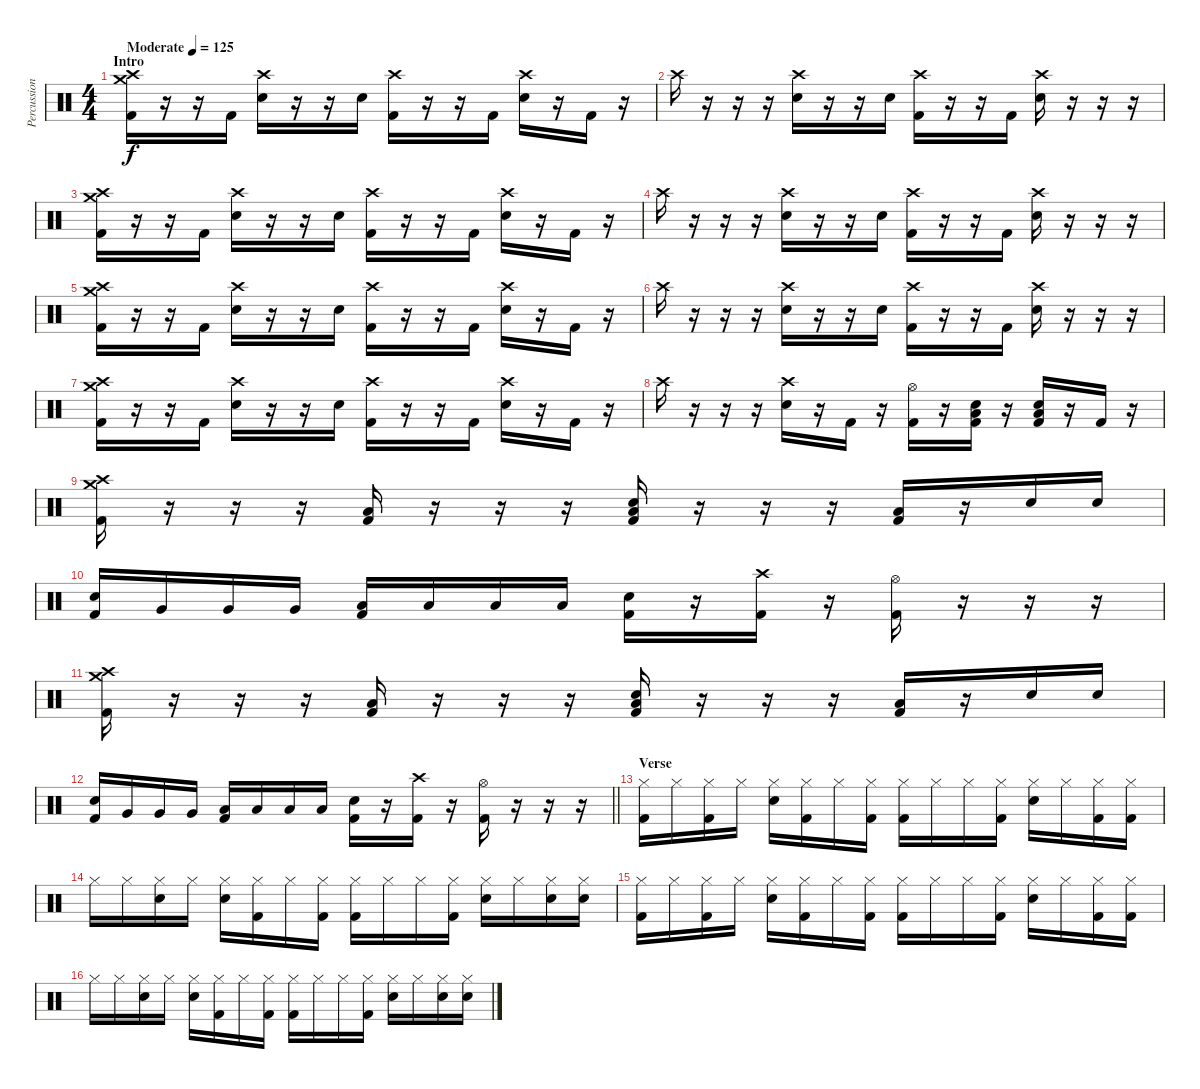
\track ("Percussion" "Percussion") {instrument percussion}
\staff {score}
\articulation defaults
\ts (4 4)
\section ("" "Intro")
\tempo (125 "Moderate")
\clef neutral
\ks c
("Crash medium (hit)" "Crash high (hit)" "Kick (hit) 2").16{dy f} r.16 r.16 "Kick (hit) 2".16 ("Crash high (hit)" "Electric Snare (hit)").16 r.16 r.16 "Electric Snare (hit)".16 ("Crash high (hit)" "Kick (hit) 2").16 r.16 r.16 "Kick (hit) 2".16 ("Crash high (hit)" "Electric Snare (hit)").16 r.16 "Kick (hit) 2".16 r.16 |
"Crash high (hit)".16 r.16 r.16 r.16 ("Crash high (hit)" "Electric Snare (hit)").16 r.16 r.16 "Electric Snare (hit)".16 ("Crash high (hit)" "Kick (hit) 2").16 r.16 r.16 "Kick (hit) 2".16 ("Crash high (hit)" "Electric Snare (hit)").16 r.16 r.16 r.16 |
("Crash medium (hit)" "Crash high (hit)" "Kick (hit) 2").16 r.16 r.16 "Kick (hit) 2".16 ("Crash high (hit)" "Electric Snare (hit)").16 r.16 r.16 "Electric Snare (hit)".16 ("Crash high (hit)" "Kick (hit) 2").16 r.16 r.16 "Kick (hit) 2".16 ("Crash high (hit)" "Electric Snare (hit)").16 r.16 "Kick (hit) 2".16 r.16 |
"Crash high (hit)".16 r.16 r.16 r.16 ("Crash high (hit)" "Electric Snare (hit)").16 r.16 r.16 "Electric Snare (hit)".16 ("Crash high (hit)" "Kick (hit) 2").16 r.16 r.16 "Kick (hit) 2".16 ("Crash high (hit)" "Electric Snare (hit)").16 r.16 r.16 r.16 |
("Crash medium (hit)" "Crash high (hit)" "Kick (hit) 2").16 r.16 r.16 "Kick (hit) 2".16 ("Crash high (hit)" "Electric Snare (hit)").16 r.16 r.16 "Electric Snare (hit)".16 ("Crash high (hit)" "Kick (hit) 2").16 r.16 r.16 "Kick (hit) 2".16 ("Crash high (hit)" "Electric Snare (hit)").16 r.16 "Kick (hit) 2".16 r.16 |
"Crash high (hit)".16 r.16 r.16 r.16 ("Crash high (hit)" "Electric Snare (hit)").16 r.16 r.16 "Electric Snare (hit)".16 ("Crash high (hit)" "Kick (hit) 2").16 r.16 r.16 "Kick (hit) 2".16 ("Crash high (hit)" "Electric Snare (hit)").16 r.16 r.16 r.16 |
("Crash medium (hit)" "Crash high (hit)" "Kick (hit) 2").16 r.16 r.16 "Kick (hit) 2".16 ("Crash high (hit)" "Electric Snare (hit)").16 r.16 r.16 "Electric Snare (hit)".16 ("Crash high (hit)" "Kick (hit) 2").16 r.16 r.16 "Kick (hit) 2".16 ("Crash high (hit)" "Electric Snare (hit)").16 r.16 "Kick (hit) 2".16 r.16 |
"Crash high (hit)".16 r.16 r.16 r.16 ("Crash high (hit)" "Electric Snare (hit)").16 r.16 "Kick (hit) 2".16 r.16 ("Hi-Hat (open)" "Kick (hit) 2").16 r.16 ("Electric Snare (hit)" "Low Floor Tom (hit)" "Kick (hit) 2").16 r.16 ("Electric Snare (hit)" "Low Floor Tom (hit)" "Kick (hit) 2").16 r.16 "Kick (hit) 2".16 r.16 |
("Crash medium (hit)" "Crash high (hit)" "Kick (hit) 2").16 r.16 r.16 r.16 ("Low Floor Tom (hit)" "Kick (hit) 2").16 r.16 r.16 r.16 ("Electric Snare (hit)" "Low Floor Tom (hit)" "Kick (hit) 2").16 r.16 r.16 r.16 ("Low Floor Tom (hit)" "Kick (hit) 2").16 r.16 "Electric Snare (hit)".16 "Electric Snare (hit)".16 |
("Electric Snare (hit)" "Kick (hit) 2").16 "Very Low Tom (hit)".16 "Very Low Tom (hit)".16 "Very Low Tom (hit)".16 ("Low Floor Tom (hit)" "Kick (hit) 2").16 "Low Floor Tom (hit)".16 "Low Floor Tom (hit)".16 "Low Floor Tom (hit)".16 ("Electric Snare (hit)" "Kick (hit) 2").16 r.16 ("Crash high (hit)" "Kick (hit) 2").16 r.16 ("Hi-Hat (open)" "Kick (hit) 2").16 r.16 r.16 r.16 |
("Crash medium (hit)" "Crash high (hit)" "Kick (hit) 2").16 r.16 r.16 r.16 ("Low Floor Tom (hit)" "Kick (hit) 2").16 r.16 r.16 r.16 ("Electric Snare (hit)" "Low Floor Tom (hit)" "Kick (hit) 2").16 r.16 r.16 r.16 ("Low Floor Tom (hit)" "Kick (hit) 2").16 r.16 "Electric Snare (hit)".16 "Electric Snare (hit)".16 |
\barLineRight lightlight
("Electric Snare (hit)" "Kick (hit) 2").16 "Very Low Tom (hit)".16 "Very Low Tom (hit)".16 "Very Low Tom (hit)".16 ("Low Floor Tom (hit)" "Kick (hit) 2").16 "Low Floor Tom (hit)".16 "Low Floor Tom (hit)".16 "Low Floor Tom (hit)".16 ("Electric Snare (hit)" "Kick (hit) 2").16 r.16 ("Crash high (hit)" "Kick (hit) 2").16 r.16 ("Hi-Hat (open)" "Kick (hit) 2").16 r.16 r.16 r.16 |
\section ("" "Verse")
("Hi-Hat (closed)" "Kick (hit) 2").16 "Hi-Hat (closed)".16 ("Hi-Hat (closed)" "Kick (hit) 2").16 "Hi-Hat (closed)".16 ("Hi-Hat (closed)" "Electric Snare (hit)").16 ("Hi-Hat (closed)" "Kick (hit) 2").16 "Hi-Hat (closed)".16 ("Hi-Hat (closed)" "Kick (hit) 2").16 ("Hi-Hat (closed)" "Kick (hit) 2").16 "Hi-Hat (closed)".16 "Hi-Hat (closed)".16 ("Hi-Hat (closed)" "Kick (hit) 2").16 ("Hi-Hat (closed)" "Electric Snare (hit)").16 "Hi-Hat (closed)".16 ("Hi-Hat (closed)" "Kick (hit) 2").16 ("Hi-Hat (closed)" "Kick (hit) 2").16 |
"Hi-Hat (closed)".16 "Hi-Hat (closed)".16 ("Hi-Hat (closed)" "Electric Snare (hit)").16 "Hi-Hat (closed)".16 ("Hi-Hat (closed)" "Electric Snare (hit)").16 ("Hi-Hat (closed)" "Kick (hit) 2").16 "Hi-Hat (closed)".16 ("Hi-Hat (closed)" "Kick (hit) 2").16 ("Hi-Hat (closed)" "Kick (hit) 2").16 "Hi-Hat (closed)".16 "Hi-Hat (closed)".16 ("Hi-Hat (closed)" "Kick (hit) 2").16 ("Hi-Hat (closed)" "Electric Snare (hit)").16 "Hi-Hat (closed)".16 ("Hi-Hat (closed)" "Electric Snare (hit)").16 ("Hi-Hat (closed)" "Electric Snare (hit)").16 |
("Hi-Hat (closed)" "Kick (hit) 2").16 "Hi-Hat (closed)".16 ("Hi-Hat (closed)" "Kick (hit) 2").16 "Hi-Hat (closed)".16 ("Hi-Hat (closed)" "Electric Snare (hit)").16 ("Hi-Hat (closed)" "Kick (hit) 2").16 "Hi-Hat (closed)".16 ("Hi-Hat (closed)" "Kick (hit) 2").16 ("Hi-Hat (closed)" "Kick (hit) 2").16 "Hi-Hat (closed)".16 "Hi-Hat (closed)".16 ("Hi-Hat (closed)" "Kick (hit) 2").16 ("Hi-Hat (closed)" "Electric Snare (hit)").16 "Hi-Hat (closed)".16 ("Hi-Hat (closed)" "Kick (hit) 2").16 ("Hi-Hat (closed)" "Kick (hit) 2").16 |
"Hi-Hat (closed)".16 "Hi-Hat (closed)".16 ("Hi-Hat (closed)" "Electric Snare (hit)").16 "Hi-Hat (closed)".16 ("Hi-Hat (closed)" "Electric Snare (hit)").16 ("Hi-Hat (closed)" "Kick (hit) 2").16 "Hi-Hat (closed)".16 ("Hi-Hat (closed)" "Kick (hit) 2").16 ("Hi-Hat (closed)" "Kick (hit) 2").16 "Hi-Hat (closed)".16 "Hi-Hat (closed)".16 ("Hi-Hat (closed)" "Kick (hit) 2").16 ("Hi-Hat (closed)" "Electric Snare (hit)").16 "Hi-Hat (closed)".16 ("Hi-Hat (closed)" "Electric Snare (hit)").16 ("Hi-Hat (closed)" "Electric Snare (hit)").16
